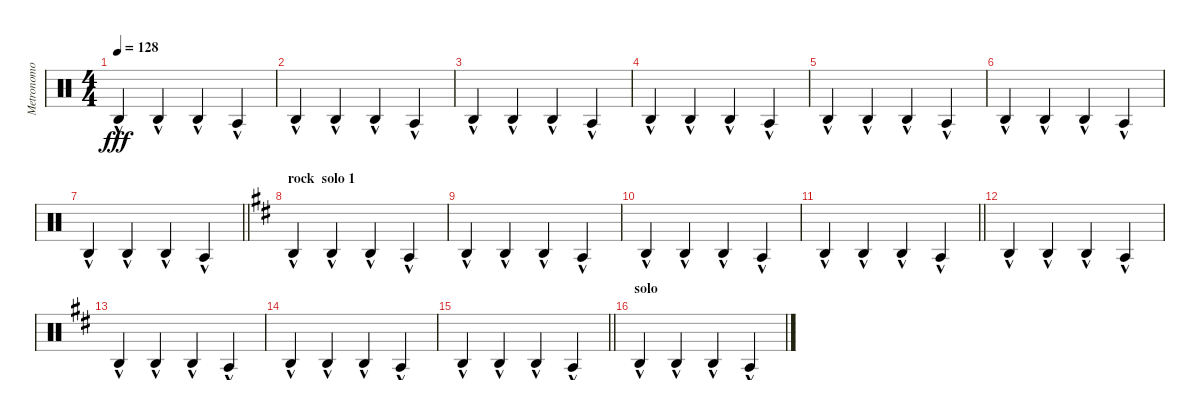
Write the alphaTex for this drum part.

\track ("Metronomo" "Metronomo") {mute instrument percussion}
\staff {score}
\articulation defaults
\ts (4 4)
\tempo 128
\clef neutral
\ks c "Agogo high (hit)"{hac}.4{dy fff} "Agogo high (hit)"{hac}.4 "Agogo high (hit)"{hac}.4 "Agogo tow (hit)"{hac}.4
|
"Agogo high (hit)"{hac}.4 "Agogo high (hit)"{hac}.4 "Agogo high (hit)"{hac}.4 "Agogo tow (hit)"{hac}.4 |
"Agogo high (hit)"{hac}.4 "Agogo high (hit)"{hac}.4 "Agogo high (hit)"{hac}.4 "Agogo tow (hit)"{hac}.4 |
"Agogo high (hit)"{hac}.4 "Agogo high (hit)"{hac}.4 "Agogo high (hit)"{hac}.4 "Agogo tow (hit)"{hac}.4 |
"Agogo high (hit)"{hac}.4 "Agogo high (hit)"{hac}.4 "Agogo high (hit)"{hac}.4 "Agogo tow (hit)"{hac}.4 |
"Agogo high (hit)"{hac}.4 "Agogo high (hit)"{hac}.4 "Agogo high (hit)"{hac}.4 "Agogo tow (hit)"{hac}.4 |
\barLineRight lightlight "Agogo high (hit)"{hac}.4 "Agogo high (hit)"{hac}.4 "Agogo high (hit)"{hac}.4 "Agogo tow (hit)"{hac}.4
|
\section ("" "rock  solo 1")
\ks bminor "Agogo high (hit)"{hac}.4 "Agogo high (hit)"{hac}.4 "Agogo high (hit)"{hac}.4 "Agogo tow (hit)"{hac}.4
|
"Agogo high (hit)"{hac}.4 "Agogo high (hit)"{hac}.4 "Agogo high (hit)"{hac}.4 "Agogo tow (hit)"{hac}.4 |
"Agogo high (hit)"{hac}.4 "Agogo high (hit)"{hac}.4 "Agogo high (hit)"{hac}.4 "Agogo tow (hit)"{hac}.4 |
\barLineRight lightlight "Agogo high (hit)"{hac}.4 "Agogo high (hit)"{hac}.4 "Agogo high (hit)"{hac}.4 "Agogo tow (hit)"{hac}.4
|
"Agogo high (hit)"{hac}.4 "Agogo high (hit)"{hac}.4 "Agogo high (hit)"{hac}.4 "Agogo tow (hit)"{hac}.4 |
"Agogo high (hit)"{hac}.4 "Agogo high (hit)"{hac}.4 "Agogo high (hit)"{hac}.4 "Agogo tow (hit)"{hac}.4 |
"Agogo high (hit)"{hac}.4 "Agogo high (hit)"{hac}.4 "Agogo high (hit)"{hac}.4 "Agogo tow (hit)"{hac}.4 |
\barLineRight lightlight "Agogo high (hit)"{hac}.4 "Agogo high (hit)"{hac}.4 "Agogo high (hit)"{hac}.4 "Agogo tow (hit)"{hac}.4
|
\section ("" "solo")
"Agogo high (hit)"{hac}.4 "Agogo high (hit)"{hac}.4 "Agogo high (hit)"{hac}.4 "Agogo tow (hit)"{hac}.4
